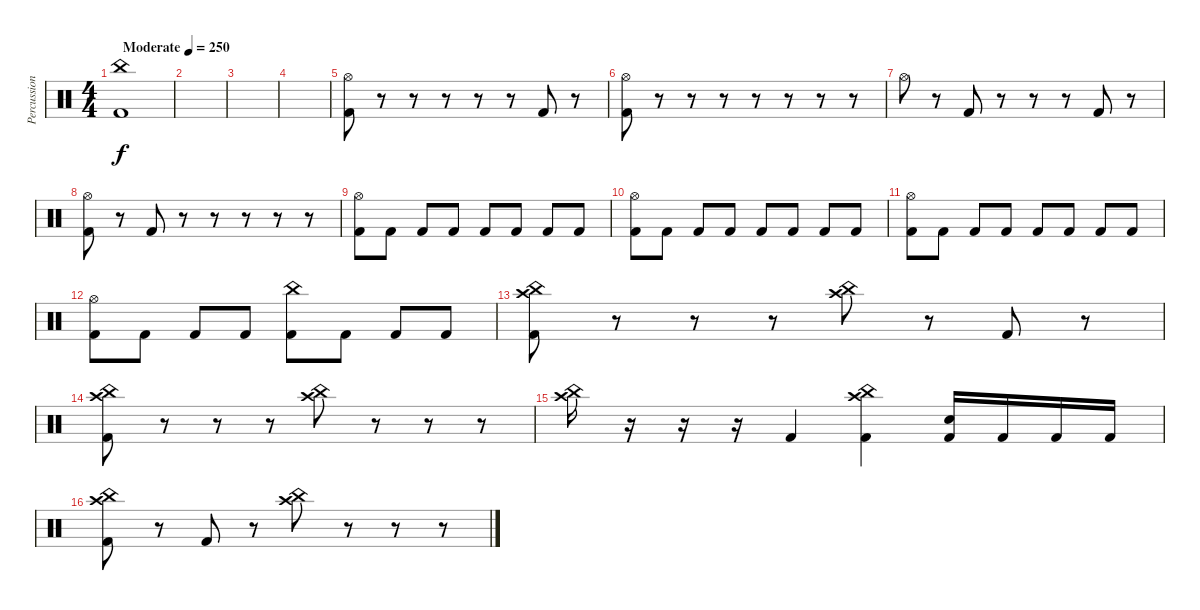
\track ("Percussion" "Percussion") {instrument percussion}
\staff {score}
\articulation defaults
\ts (4 4)
\tempo (250 "Moderate")
\clef neutral
\ks c
("China (hit)" "Kick (hit) 2").1{dy f} |
|
|
|
("Hi-Hat (open)" "Kick (hit) 2").8 r.8 r.8 r.8 r.8 r.8 "Kick (hit) 2".8 r.8 |
("Hi-Hat (open)" "Kick (hit) 2").8 r.8 r.8 r.8 r.8 r.8 r.8 r.8 |
"Hi-Hat (open)".8 r.8 "Kick (hit) 2".8 r.8 r.8 r.8 "Kick (hit) 2".8 r.8 |
("Hi-Hat (open)" "Kick (hit) 2").8 r.8 "Kick (hit) 2".8 r.8 r.8 r.8 r.8 r.8 |
("Hi-Hat (open)" "Kick (hit) 2").8 "Kick (hit) 2".8 "Kick (hit) 2".8 "Kick (hit) 2".8 "Kick (hit) 2".8 "Kick (hit) 2".8 "Kick (hit) 2".8 "Kick (hit) 2".8 |
("Hi-Hat (open)" "Kick (hit) 2").8 "Kick (hit) 2".8 "Kick (hit) 2".8 "Kick (hit) 2".8 "Kick (hit) 2".8 "Kick (hit) 2".8 "Kick (hit) 2".8 "Kick (hit) 2".8 |
("Hi-Hat (open)" "Kick (hit) 2").8 "Kick (hit) 2".8 "Kick (hit) 2".8 "Kick (hit) 2".8 "Kick (hit) 2".8 "Kick (hit) 2".8 "Kick (hit) 2".8 "Kick (hit) 2".8 |
("Hi-Hat (open)" "Kick (hit) 2").8 "Kick (hit) 2".8 "Kick (hit) 2".8 "Kick (hit) 2".8 ("China (hit)" "Kick (hit) 2").8 "Kick (hit) 2".8 "Kick (hit) 2".8 "Kick (hit) 2".8 |
("China (hit)" "Crash high (hit)" "Kick (hit) 2").8 r.8 r.8 r.8 ("China (hit)" "Crash high (hit)").8 r.8 "Kick (hit) 2".8 r.8 |
("China (hit)" "Crash high (hit)" "Kick (hit) 2").8 r.8 r.8 r.8 ("China (hit)" "Crash high (hit)").8 r.8 r.8 r.8 |
("China (hit)" "Crash high (hit)").16 r.16 r.16 r.16 "Kick (hit) 2".4 ("China (hit)" "Crash high (hit)" "Kick (hit) 2").4 ("Electric Snare (hit)" "Kick (hit) 2").16 "Kick (hit) 2".16 "Kick (hit) 2".16 "Kick (hit) 2".16 |
("China (hit)" "Crash high (hit)" "Kick (hit) 2").8 r.8 "Kick (hit) 2".8 r.8 ("China (hit)" "Crash high (hit)").8 r.8 r.8 r.8
